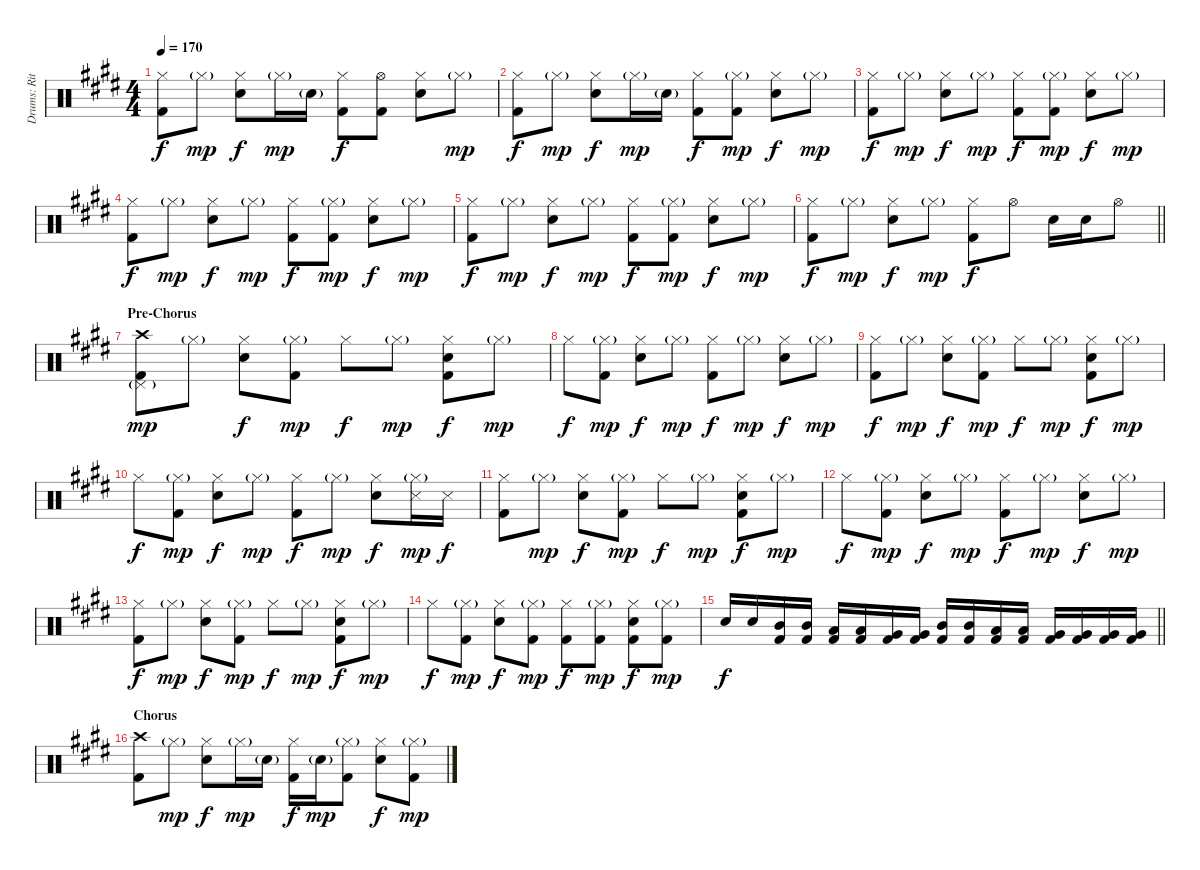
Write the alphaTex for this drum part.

\track ("Drums: Ritsu Tainaka" "Drums: Rit") {instrument percussion}
\staff {score}
\articulation defaults
\ts (4 4)
\tempo 170
\clef neutral
\ks e
("Hi-Hat (closed)" "Kick (hit) 2").8{dy f} "Hi-Hat (closed)"{g}.8{dy mp} ("Hi-Hat (closed)" "Electric Snare (hit)").8{dy f} "Hi-Hat (closed)"{g}.16{dy mp} "Electric Snare (hit)"{g}.16 ("Hi-Hat (closed)" "Kick (hit) 2").8{dy f} ("Hi-Hat (open)" "Kick (hit) 2").8 ("Hi-Hat (closed)" "Electric Snare (hit)").8 "Hi-Hat (closed)"{g}.8{dy mp} |
("Hi-Hat (closed)" "Kick (hit) 2").8{dy f} "Hi-Hat (closed)"{g}.8{dy mp} ("Hi-Hat (closed)" "Electric Snare (hit)").8{dy f} "Hi-Hat (closed)"{g}.16{dy mp} "Electric Snare (hit)"{g}.16 ("Hi-Hat (closed)" "Kick (hit) 2").8{dy f} ("Hi-Hat (closed)"{g} "Kick (hit) 2").8{dy mp} ("Hi-Hat (closed)" "Electric Snare (hit)").8{dy f} "Hi-Hat (closed)"{g}.8{dy mp} |
("Hi-Hat (closed)" "Kick (hit) 2").8{dy f} "Hi-Hat (closed)"{g}.8{dy mp} ("Hi-Hat (closed)" "Electric Snare (hit)").8{dy f} "Hi-Hat (closed)"{g}.8{dy mp} ("Hi-Hat (closed)" "Kick (hit) 2").8{dy f} ("Hi-Hat (closed)"{g} "Kick (hit) 2").8{dy mp} ("Hi-Hat (closed)" "Electric Snare (hit)").8{dy f} "Hi-Hat (closed)"{g}.8{dy mp} |
("Hi-Hat (closed)" "Kick (hit) 2").8{dy f} "Hi-Hat (closed)"{g}.8{dy mp} ("Hi-Hat (closed)" "Electric Snare (hit)").8{dy f} "Hi-Hat (closed)"{g}.8{dy mp} ("Hi-Hat (closed)" "Kick (hit) 2").8{dy f} ("Hi-Hat (closed)"{g} "Kick (hit) 2").8{dy mp} ("Hi-Hat (closed)" "Electric Snare (hit)").8{dy f} "Hi-Hat (closed)"{g}.8{dy mp} |
("Hi-Hat (closed)" "Kick (hit) 2").8{dy f} "Hi-Hat (closed)"{g}.8{dy mp} ("Hi-Hat (closed)" "Electric Snare (hit)").8{dy f} "Hi-Hat (closed)"{g}.8{dy mp} ("Hi-Hat (closed)" "Kick (hit) 2").8{dy f} ("Hi-Hat (closed)"{g} "Kick (hit) 2").8{dy mp} ("Hi-Hat (closed)" "Electric Snare (hit)").8{dy f} "Hi-Hat (closed)"{g}.8{dy mp} |
\barLineRight lightlight
("Hi-Hat (closed)" "Kick (hit) 2").8{dy f} "Hi-Hat (closed)"{g}.8{dy mp} ("Hi-Hat (closed)" "Electric Snare (hit)").8{dy f} "Hi-Hat (closed)"{g}.8{dy mp} ("Hi-Hat (closed)" "Kick (hit) 2").8{dy f} "Hi-Hat (open)".8 "Electric Snare (hit)".16 "Electric Snare (hit)".16 "Hi-Hat (open)".8 |
\section ("" "Pre-Chorus")
("Crash high (hit)" "Pedal Hi-Hat (hit)"{g} "Kick (hit) 2").8{dy mp} "Hi-Hat (closed)"{g}.8 ("Hi-Hat (closed)" "Electric Snare (hit)").8{dy f} ("Hi-Hat (closed)"{g} "Kick (hit) 2").8{dy mp} "Hi-Hat (closed)".8{dy f} "Hi-Hat (closed)"{g}.8{dy mp} ("Hi-Hat (closed)" "Electric Snare (hit)" "Kick (hit) 2").8{dy f} "Hi-Hat (closed)"{g}.8{dy mp} |
"Hi-Hat (closed)".8{dy f} ("Hi-Hat (closed)"{g} "Kick (hit) 2").8{dy mp} ("Hi-Hat (closed)" "Electric Snare (hit)").8{dy f} "Hi-Hat (closed)"{g}.8{dy mp} ("Hi-Hat (closed)" "Kick (hit) 2").8{dy f} "Hi-Hat (closed)"{g}.8{dy mp} ("Hi-Hat (closed)" "Electric Snare (hit)").8{dy f} "Hi-Hat (closed)"{g}.8{dy mp} |
("Hi-Hat (closed)" "Kick (hit) 2").8{dy f} "Hi-Hat (closed)"{g}.8{dy mp} ("Hi-Hat (closed)" "Electric Snare (hit)").8{dy f} ("Hi-Hat (closed)"{g} "Kick (hit) 2").8{dy mp} "Hi-Hat (closed)".8{dy f} "Hi-Hat (closed)"{g}.8{dy mp} ("Hi-Hat (closed)" "Electric Snare (hit)" "Kick (hit) 2").8{dy f} "Hi-Hat (closed)"{g}.8{dy mp} |
"Hi-Hat (closed)".8{dy f} ("Hi-Hat (closed)"{g} "Kick (hit) 2").8{dy mp} ("Hi-Hat (closed)" "Electric Snare (hit)").8{dy f} "Hi-Hat (closed)"{g}.8{dy mp} ("Hi-Hat (closed)" "Kick (hit) 2").8{dy f} "Hi-Hat (closed)"{g}.8{dy mp} ("Hi-Hat (closed)" "Electric Snare (hit)").8{dy f} ("Hi-Hat (closed)"{g} "Snare (side stick) 3").16{dy mp} "Snare (side stick) 3".16{dy f} |
("Hi-Hat (closed)" "Kick (hit) 2").8 "Hi-Hat (closed)"{g}.8{dy mp} ("Hi-Hat (closed)" "Electric Snare (hit)").8{dy f} ("Hi-Hat (closed)"{g} "Kick (hit) 2").8{dy mp} "Hi-Hat (closed)".8{dy f} "Hi-Hat (closed)"{g}.8{dy mp} ("Hi-Hat (closed)" "Electric Snare (hit)" "Kick (hit) 2").8{dy f} "Hi-Hat (closed)"{g}.8{dy mp} |
"Hi-Hat (closed)".8{dy f} ("Hi-Hat (closed)"{g} "Kick (hit) 2").8{dy mp} ("Hi-Hat (closed)" "Electric Snare (hit)").8{dy f} "Hi-Hat (closed)"{g}.8{dy mp} ("Hi-Hat (closed)" "Kick (hit) 2").8{dy f} "Hi-Hat (closed)"{g}.8{dy mp} ("Hi-Hat (closed)" "Electric Snare (hit)").8{dy f} "Hi-Hat (closed)"{g}.8{dy mp} |
("Hi-Hat (closed)" "Kick (hit) 2").8{dy f} "Hi-Hat (closed)"{g}.8{dy mp} ("Hi-Hat (closed)" "Electric Snare (hit)").8{dy f} ("Hi-Hat (closed)"{g} "Kick (hit) 2").8{dy mp} "Hi-Hat (closed)".8{dy f} "Hi-Hat (closed)"{g}.8{dy mp} ("Hi-Hat (closed)" "Electric Snare (hit)" "Kick (hit) 2").8{dy f} "Hi-Hat (closed)"{g}.8{dy mp} |
"Hi-Hat (closed)".8{dy f} ("Hi-Hat (closed)"{g} "Kick (hit) 2").8{dy mp} ("Hi-Hat (closed)" "Electric Snare (hit)").8{dy f} ("Hi-Hat (closed)"{g} "Kick (hit) 2").8{dy mp} ("Hi-Hat (closed)" "Kick (hit) 2").8{dy f} ("Hi-Hat (closed)"{g} "Kick (hit) 2").8{dy mp} ("Hi-Hat (closed)" "Electric Snare (hit)" "Kick (hit) 2").8{dy f} ("Hi-Hat (closed)"{g} "Kick (hit) 2").8{dy mp} |
\barLineRight lightlight "Electric Snare (hit)".16{dy f} "Electric Snare (hit)".16
("Mid Tom (hit)" "Kick (hit) 2").16 ("Mid Tom (hit)" "Kick (hit) 2").16 ("Low Tom (hit)" "Kick (hit) 2").16 ("Low Tom (hit)" "Kick (hit) 2").16 ("Very Low Tom (hit)" "Kick (hit) 2").16 ("Very Low Tom (hit)" "Kick (hit) 2").16 ("Mid Tom (hit)" "Kick (hit) 2").16 ("Mid Tom (hit)" "Kick (hit) 2").16 ("Low Tom (hit)" "Kick (hit) 2").16 ("Low Tom (hit)" "Kick (hit) 2").16 ("Very Low Tom (hit)" "Kick (hit) 2").16 ("Very Low Tom (hit)" "Kick (hit) 2").16 ("Very Low Tom (hit)" "Kick (hit) 2").16 ("Very Low Tom (hit)" "Kick (hit) 2").16 |
\section ("" "Chorus")
("Crash high (hit)" "Kick (hit) 2").8 "Hi-Hat (closed)"{g}.8{dy mp} ("Hi-Hat (closed)" "Electric Snare (hit)").8{dy f} "Hi-Hat (closed)"{g}.16{dy mp} "Electric Snare (hit)"{g}.16 ("Hi-Hat (closed)" "Kick (hit) 2").16{dy f} "Electric Snare (hit)"{g}.16{dy mp} ("Hi-Hat (closed)"{g} "Kick (hit) 2").8 ("Hi-Hat (closed)" "Electric Snare (hit)").8{dy f} ("Hi-Hat (closed)"{g} "Kick (hit) 2").8{dy mp}
